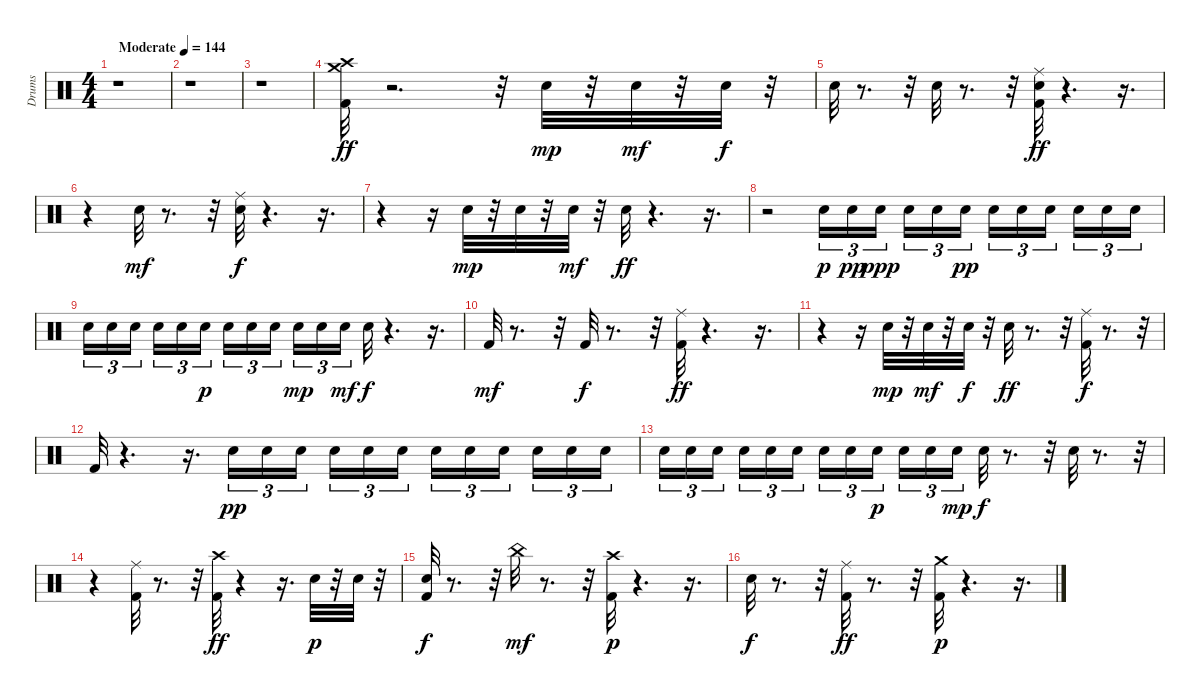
\track ("Drums" "Drums") {instrument percussion}
\staff {score}
\articulation defaults
\ts (4 4)
\tempo (144 "Moderate")
\clef neutral
\ks c
r.1{dy ff} |
r.1 |
r.1 |
("Crash medium (hit)" "Crash high (hit)" "Kick (hit) 2").32 r.2{d} r.32 "Snare (hit) 2".32{dy mp} r.32 "Snare (hit) 2".32{dy mf} r.32 "Snare (hit) 2".32{dy f} r.32 |
"Snare (hit) 2".32 r.8{d} r.32 "Snare (hit) 2".32 r.8{d} r.32 ("Kick (hit) 2" "Ride (middle)" "Snare (hit) 2").32{dy ff} r.4{d} r.16{d} |
r.4 "Snare (hit) 2".32{dy mf} r.8{d} r.32 ("Ride (middle)" "Snare (hit) 2").32{dy f} r.4{d} r.16{d} |
r.4 r.16 "Snare (hit) 2".32{dy mp} r.32 "Snare (hit) 2".32 r.32 "Snare (hit) 2".32{dy mf} r.32 "Snare (hit) 2".32{dy ff} r.4{d} r.16{d} |
r.2 "Snare (hit) 2".16{tu (3 2) dy p} "Snare (hit) 2".16{tu (3 2) dy pp} "Snare (hit) 2".16{tu (3 2) dy ppp beam splitsecondary} "Snare (hit) 2".16{tu (3 2)} "Snare (hit) 2".16{tu (3 2)} "Snare (hit) 2".16{tu (3 2) dy pp} "Snare (hit) 2".16{tu (3 2)} "Snare (hit) 2".16{tu (3 2)} "Snare (hit) 2".16{tu (3 2) beam splitsecondary} "Snare (hit) 2".16{tu (3 2)} "Snare (hit) 2".16{tu (3 2)} "Snare (hit) 2".16{tu (3 2)} |
"Snare (hit) 2".16{tu (3 2)} "Snare (hit) 2".16{tu (3 2)} "Snare (hit) 2".16{tu (3 2) beam splitsecondary} "Snare (hit) 2".16{tu (3 2)} "Snare (hit) 2".16{tu (3 2)} "Snare (hit) 2".16{tu (3 2) dy p} "Snare (hit) 2".16{tu (3 2)} "Snare (hit) 2".16{tu (3 2)} "Snare (hit) 2".16{tu (3 2) beam splitsecondary} "Snare (hit) 2".16{tu (3 2) dy mp} "Snare (hit) 2".16{tu (3 2)} "Snare (hit) 2".16{tu (3 2) dy mf} "Snare (hit) 2".32{dy f} r.4{d} r.16{d} |
"Kick (hit) 2".32{dy mf} r.8{d} r.32 "Kick (hit) 2".32{dy f} r.8{d} r.32 ("Ride (middle)" "Kick (hit) 2").32{dy ff} r.4{d} r.16{d} |
r.4 r.16 "Snare (hit) 2".32{dy mp} r.32 "Snare (hit) 2".32{dy mf} r.32 "Snare (hit) 2".32{dy f} r.32 "Snare (hit) 2".32{dy ff} r.8{d} r.32 ("Ride (middle)" "Kick (hit) 2").32{dy f} r.8{d} r.32 |
"Kick (hit) 2".32 r.4{d} r.16{d} "Snare (hit) 2".16{tu (3 2) dy pp} "Snare (hit) 2".16{tu (3 2)} "Snare (hit) 2".16{tu (3 2) beam splitsecondary} "Snare (hit) 2".16{tu (3 2)} "Snare (hit) 2".16{tu (3 2)} "Snare (hit) 2".16{tu (3 2)} "Snare (hit) 2".16{tu (3 2)} "Snare (hit) 2".16{tu (3 2)} "Snare (hit) 2".16{tu (3 2) beam splitsecondary} "Snare (hit) 2".16{tu (3 2)} "Snare (hit) 2".16{tu (3 2)} "Snare (hit) 2".16{tu (3 2)} |
"Snare (hit) 2".16{tu (3 2)} "Snare (hit) 2".16{tu (3 2)} "Snare (hit) 2".16{tu (3 2) beam splitsecondary} "Snare (hit) 2".16{tu (3 2)} "Snare (hit) 2".16{tu (3 2)} "Snare (hit) 2".16{tu (3 2)} "Snare (hit) 2".16{tu (3 2)} "Snare (hit) 2".16{tu (3 2)} "Snare (hit) 2".16{tu (3 2) dy p beam splitsecondary} "Snare (hit) 2".16{tu (3 2)} "Snare (hit) 2".16{tu (3 2)} "Snare (hit) 2".16{tu (3 2) dy mp} "Snare (hit) 2".32{dy f} r.8{d} r.32 "Snare (hit) 2".32 r.8{d} r.32 |
r.4 ("Ride (middle)" "Kick (hit) 2").32 r.8{d} r.32 ("Crash high (hit)" "Kick (hit) 2").32{dy ff} r.4 r.16{d} "Snare (hit) 2".32{dy p} r.32 "Snare (hit) 2".32 r.32 |
("Kick (hit) 2" "Snare (hit) 2").32{dy f} r.8{d} r.32 "China (hit)".32{dy mf} r.8{d} r.32 ("Crash high (hit)" "Kick (hit) 2").32{dy p} r.4{d} r.16{d} |
"Snare (hit) 2".32{dy f} r.8{d} r.32 ("Ride (middle)" "Kick (hit) 2").32{dy ff} r.8{d} r.32 ("Crash medium (hit)" "Kick (hit) 2").32{dy p} r.4{d} r.16{d}
